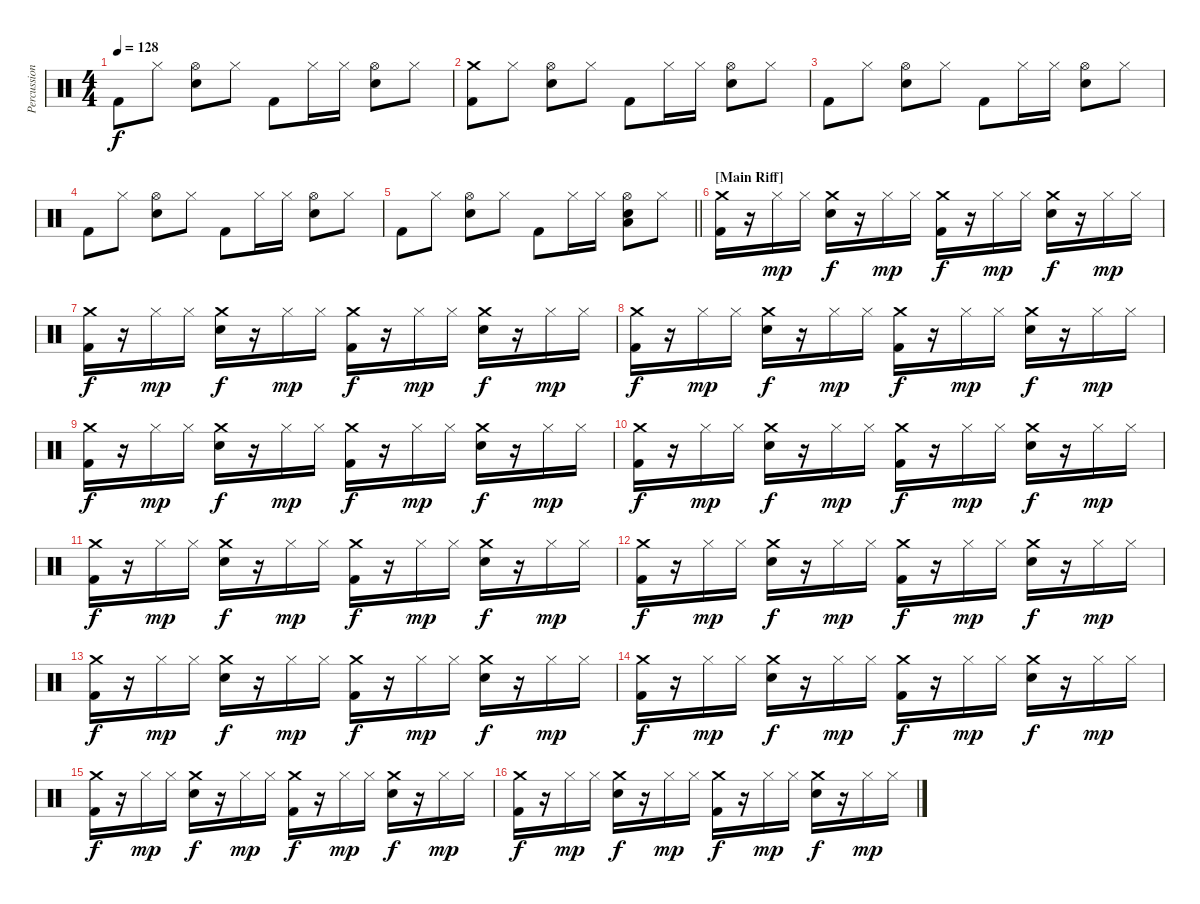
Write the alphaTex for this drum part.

\track ("Percussion" "Percussion") {instrument percussion}
\staff {score}
\articulation defaults
\ts (4 4)
\tempo 128
\clef neutral
\ks c "Kick (hit) 2".8{dy f} "Hi-Hat (closed)".8
("Hi-Hat (open)" "Snare (hit) 2").8 "Hi-Hat (closed)".8 "Kick (hit) 2".8 "Hi-Hat (closed)".16 "Hi-Hat (closed)".16 ("Hi-Hat (open)" "Snare (hit) 2").8 "Hi-Hat (closed)".8 |
("Crash medium (hit)" "Kick (hit) 2").8 "Hi-Hat (closed)".8 ("Hi-Hat (open)" "Snare (hit) 2").8 "Hi-Hat (closed)".8 "Kick (hit) 2".8 "Hi-Hat (closed)".16 "Hi-Hat (closed)".16 ("Hi-Hat (open)" "Snare (hit) 2").8 "Hi-Hat (closed)".8 |
"Kick (hit) 2".8 "Hi-Hat (closed)".8 ("Hi-Hat (open)" "Snare (hit) 2").8 "Hi-Hat (closed)".8 "Kick (hit) 2".8 "Hi-Hat (closed)".16 "Hi-Hat (closed)".16 ("Hi-Hat (open)" "Snare (hit) 2").8 "Hi-Hat (closed)".8 |
"Kick (hit) 2".8 "Hi-Hat (closed)".8 ("Hi-Hat (open)" "Snare (hit) 2").8 "Hi-Hat (closed)".8 "Kick (hit) 2".8 "Hi-Hat (closed)".16 "Hi-Hat (closed)".16 ("Hi-Hat (open)" "Snare (hit) 2").8 "Hi-Hat (closed)".8 |
\barLineRight lightlight "Kick (hit) 2".8 "Hi-Hat (closed)".8
("Hi-Hat (open)" "Snare (hit) 2").8 "Hi-Hat (closed)".8 "Kick (hit) 2".8 "Hi-Hat (closed)".16 "Hi-Hat (closed)".16 ("Low Floor Tom (hit)" "Hi-Hat (open)" "Snare (hit) 2").8 "Hi-Hat (closed)".8 |
\section ("" "[Main Riff]")
("Crash medium (hit)" "Kick (hit) 2").16 r.16 "Hi-Hat (closed)".16{dy mp} "Hi-Hat (closed)".16 ("Crash medium (hit)" "Snare (hit) 2").16{dy f} r.16 "Hi-Hat (closed)".16{dy mp} "Hi-Hat (closed)".16 ("Crash medium (hit)" "Kick (hit) 2").16{dy f} r.16 "Hi-Hat (closed)".16{dy mp} "Hi-Hat (closed)".16 ("Crash medium (hit)" "Snare (hit) 2").16{dy f} r.16 "Hi-Hat (closed)".16{dy mp} "Hi-Hat (closed)".16 |
("Crash medium (hit)" "Kick (hit) 2").16{dy f} r.16 "Hi-Hat (closed)".16{dy mp} "Hi-Hat (closed)".16 ("Crash medium (hit)" "Snare (hit) 2").16{dy f} r.16 "Hi-Hat (closed)".16{dy mp} "Hi-Hat (closed)".16 ("Crash medium (hit)" "Kick (hit) 2").16{dy f} r.16 "Hi-Hat (closed)".16{dy mp} "Hi-Hat (closed)".16 ("Crash medium (hit)" "Snare (hit) 2").16{dy f} r.16 "Hi-Hat (closed)".16{dy mp} "Hi-Hat (closed)".16 |
("Crash medium (hit)" "Kick (hit) 2").16{dy f} r.16 "Hi-Hat (closed)".16{dy mp} "Hi-Hat (closed)".16 ("Crash medium (hit)" "Snare (hit) 2").16{dy f} r.16 "Hi-Hat (closed)".16{dy mp} "Hi-Hat (closed)".16 ("Crash medium (hit)" "Kick (hit) 2").16{dy f} r.16 "Hi-Hat (closed)".16{dy mp} "Hi-Hat (closed)".16 ("Crash medium (hit)" "Snare (hit) 2").16{dy f} r.16 "Hi-Hat (closed)".16{dy mp} "Hi-Hat (closed)".16 |
("Crash medium (hit)" "Kick (hit) 2").16{dy f} r.16 "Hi-Hat (closed)".16{dy mp} "Hi-Hat (closed)".16 ("Crash medium (hit)" "Snare (hit) 2").16{dy f} r.16 "Hi-Hat (closed)".16{dy mp} "Hi-Hat (closed)".16 ("Crash medium (hit)" "Kick (hit) 2").16{dy f} r.16 "Hi-Hat (closed)".16{dy mp} "Hi-Hat (closed)".16 ("Crash medium (hit)" "Snare (hit) 2").16{dy f} r.16 "Hi-Hat (closed)".16{dy mp} "Hi-Hat (closed)".16 |
("Crash medium (hit)" "Kick (hit) 2").16{dy f} r.16 "Hi-Hat (closed)".16{dy mp} "Hi-Hat (closed)".16 ("Crash medium (hit)" "Snare (hit) 2").16{dy f} r.16 "Hi-Hat (closed)".16{dy mp} "Hi-Hat (closed)".16 ("Crash medium (hit)" "Kick (hit) 2").16{dy f} r.16 "Hi-Hat (closed)".16{dy mp} "Hi-Hat (closed)".16 ("Crash medium (hit)" "Snare (hit) 2").16{dy f} r.16 "Hi-Hat (closed)".16{dy mp} "Hi-Hat (closed)".16 |
("Crash medium (hit)" "Kick (hit) 2").16{dy f} r.16 "Hi-Hat (closed)".16{dy mp} "Hi-Hat (closed)".16 ("Crash medium (hit)" "Snare (hit) 2").16{dy f} r.16 "Hi-Hat (closed)".16{dy mp} "Hi-Hat (closed)".16 ("Crash medium (hit)" "Kick (hit) 2").16{dy f} r.16 "Hi-Hat (closed)".16{dy mp} "Hi-Hat (closed)".16 ("Crash medium (hit)" "Snare (hit) 2").16{dy f} r.16 "Hi-Hat (closed)".16{dy mp} "Hi-Hat (closed)".16 |
("Crash medium (hit)" "Kick (hit) 2").16{dy f} r.16 "Hi-Hat (closed)".16{dy mp} "Hi-Hat (closed)".16 ("Crash medium (hit)" "Snare (hit) 2").16{dy f} r.16 "Hi-Hat (closed)".16{dy mp} "Hi-Hat (closed)".16 ("Crash medium (hit)" "Kick (hit) 2").16{dy f} r.16 "Hi-Hat (closed)".16{dy mp} "Hi-Hat (closed)".16 ("Crash medium (hit)" "Snare (hit) 2").16{dy f} r.16 "Hi-Hat (closed)".16{dy mp} "Hi-Hat (closed)".16 |
("Crash medium (hit)" "Kick (hit) 2").16{dy f} r.16 "Hi-Hat (closed)".16{dy mp} "Hi-Hat (closed)".16 ("Crash medium (hit)" "Snare (hit) 2").16{dy f} r.16 "Hi-Hat (closed)".16{dy mp} "Hi-Hat (closed)".16 ("Crash medium (hit)" "Kick (hit) 2").16{dy f} r.16 "Hi-Hat (closed)".16{dy mp} "Hi-Hat (closed)".16 ("Crash medium (hit)" "Snare (hit) 2").16{dy f} r.16 "Hi-Hat (closed)".16{dy mp} "Hi-Hat (closed)".16 |
("Crash medium (hit)" "Kick (hit) 2").16{dy f} r.16 "Hi-Hat (closed)".16{dy mp} "Hi-Hat (closed)".16 ("Crash medium (hit)" "Snare (hit) 2").16{dy f} r.16 "Hi-Hat (closed)".16{dy mp} "Hi-Hat (closed)".16 ("Crash medium (hit)" "Kick (hit) 2").16{dy f} r.16 "Hi-Hat (closed)".16{dy mp} "Hi-Hat (closed)".16 ("Crash medium (hit)" "Snare (hit) 2").16{dy f} r.16 "Hi-Hat (closed)".16{dy mp} "Hi-Hat (closed)".16 |
("Crash medium (hit)" "Kick (hit) 2").16{dy f} r.16 "Hi-Hat (closed)".16{dy mp} "Hi-Hat (closed)".16 ("Crash medium (hit)" "Snare (hit) 2").16{dy f} r.16 "Hi-Hat (closed)".16{dy mp} "Hi-Hat (closed)".16 ("Crash medium (hit)" "Kick (hit) 2").16{dy f} r.16 "Hi-Hat (closed)".16{dy mp} "Hi-Hat (closed)".16 ("Crash medium (hit)" "Snare (hit) 2").16{dy f} r.16 "Hi-Hat (closed)".16{dy mp} "Hi-Hat (closed)".16 |
("Crash medium (hit)" "Kick (hit) 2").16{dy f} r.16 "Hi-Hat (closed)".16{dy mp} "Hi-Hat (closed)".16 ("Crash medium (hit)" "Snare (hit) 2").16{dy f} r.16 "Hi-Hat (closed)".16{dy mp} "Hi-Hat (closed)".16 ("Crash medium (hit)" "Kick (hit) 2").16{dy f} r.16 "Hi-Hat (closed)".16{dy mp} "Hi-Hat (closed)".16 ("Crash medium (hit)" "Snare (hit) 2").16{dy f} r.16 "Hi-Hat (closed)".16{dy mp} "Hi-Hat (closed)".16
